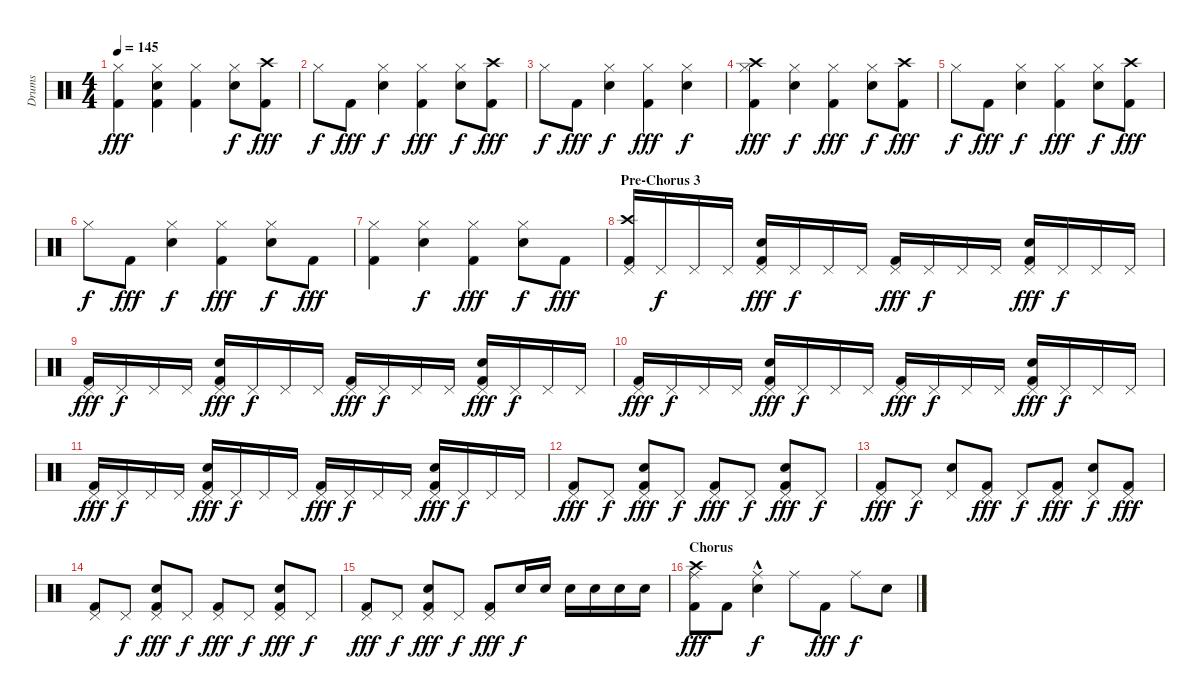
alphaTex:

\track ("Drums" "Drums") {instrument percussion}
\staff {score}
\articulation defaults
\ts (4 4)
\tempo 145
\clef neutral
\ks c
("Hi-Hat (closed)" "Kick (hit) 2").4{dy fff} ("Hi-Hat (closed)" "Electric Snare (hit)" "Kick (hit) 2").4 ("Hi-Hat (closed)" "Kick (hit) 2").4 ("Hi-Hat (closed)" "Electric Snare (hit)").8{dy f} ("Crash high (hit)" "Kick (hit) 2").8{dy fff} |
"Hi-Hat (closed)".8{dy f} "Kick (hit) 2".8{dy fff} ("Hi-Hat (closed)" "Electric Snare (hit)").4{dy f} ("Hi-Hat (closed)" "Kick (hit) 2").4{dy fff} ("Hi-Hat (closed)" "Electric Snare (hit)").8{dy f} ("Crash high (hit)" "Kick (hit) 2").8{dy fff} |
"Hi-Hat (closed)".8{dy f} "Kick (hit) 2".8{dy fff} ("Hi-Hat (closed)" "Electric Snare (hit)").4{dy f} ("Hi-Hat (closed)" "Kick (hit) 2").4{dy fff} ("Hi-Hat (closed)" "Electric Snare (hit)").4{dy f} |
("Crash high (hit)" "Hi-Hat (closed)" "Kick (hit) 2").4{dy fff} ("Hi-Hat (closed)" "Electric Snare (hit)").4{dy f} ("Hi-Hat (closed)" "Kick (hit) 2").4{dy fff} ("Hi-Hat (closed)" "Electric Snare (hit)").8{dy f} ("Crash high (hit)" "Kick (hit) 2").8{dy fff} |
"Hi-Hat (closed)".8{dy f} "Kick (hit) 2".8{dy fff} ("Hi-Hat (closed)" "Electric Snare (hit)").4{dy f} ("Hi-Hat (closed)" "Kick (hit) 2").4{dy fff} ("Hi-Hat (closed)" "Electric Snare (hit)").8{dy f} ("Crash high (hit)" "Kick (hit) 2").8{dy fff} |
"Hi-Hat (closed)".8{dy f} "Kick (hit) 2".8{dy fff} ("Hi-Hat (closed)" "Electric Snare (hit)").4{dy f} ("Hi-Hat (closed)" "Kick (hit) 2").4{dy fff} ("Hi-Hat (closed)" "Electric Snare (hit)").8{dy f} "Kick (hit) 2".8{dy fff} |
("Hi-Hat (closed)" "Kick (hit) 2").4 ("Hi-Hat (closed)" "Electric Snare (hit)").4{dy f} ("Hi-Hat (closed)" "Kick (hit) 2").4{dy fff} ("Hi-Hat (closed)" "Electric Snare (hit)").8{dy f} "Kick (hit) 2".8{dy fff} |
\section ("" "Pre-Chorus 3")
("Crash high (hit)" "Pedal Hi-Hat (hit)" "Kick (hit) 2").16 "Pedal Hi-Hat (hit)".16{dy f} "Pedal Hi-Hat (hit)".16 "Pedal Hi-Hat (hit)".16 ("Pedal Hi-Hat (hit)" "Electric Snare (hit)" "Kick (hit) 2").16{dy fff} "Pedal Hi-Hat (hit)".16{dy f} "Pedal Hi-Hat (hit)".16 "Pedal Hi-Hat (hit)".16 ("Pedal Hi-Hat (hit)" "Kick (hit) 2").16{dy fff} "Pedal Hi-Hat (hit)".16{dy f} "Pedal Hi-Hat (hit)".16 "Pedal Hi-Hat (hit)".16 ("Pedal Hi-Hat (hit)" "Electric Snare (hit)" "Kick (hit) 2").16{dy fff} "Pedal Hi-Hat (hit)".16{dy f} "Pedal Hi-Hat (hit)".16 "Pedal Hi-Hat (hit)".16 |
("Pedal Hi-Hat (hit)" "Kick (hit) 2").16{dy fff} "Pedal Hi-Hat (hit)".16{dy f} "Pedal Hi-Hat (hit)".16 "Pedal Hi-Hat (hit)".16 ("Pedal Hi-Hat (hit)" "Electric Snare (hit)" "Kick (hit) 2").16{dy fff} "Pedal Hi-Hat (hit)".16{dy f} "Pedal Hi-Hat (hit)".16 "Pedal Hi-Hat (hit)".16 ("Pedal Hi-Hat (hit)" "Kick (hit) 2").16{dy fff} "Pedal Hi-Hat (hit)".16{dy f} "Pedal Hi-Hat (hit)".16 "Pedal Hi-Hat (hit)".16 ("Pedal Hi-Hat (hit)" "Electric Snare (hit)" "Kick (hit) 2").16{dy fff} "Pedal Hi-Hat (hit)".16{dy f} "Pedal Hi-Hat (hit)".16 "Pedal Hi-Hat (hit)".16 |
("Pedal Hi-Hat (hit)" "Kick (hit) 2").16{dy fff} "Pedal Hi-Hat (hit)".16{dy f} "Pedal Hi-Hat (hit)".16 "Pedal Hi-Hat (hit)".16 ("Pedal Hi-Hat (hit)" "Electric Snare (hit)" "Kick (hit) 2").16{dy fff} "Pedal Hi-Hat (hit)".16{dy f} "Pedal Hi-Hat (hit)".16 "Pedal Hi-Hat (hit)".16 ("Pedal Hi-Hat (hit)" "Kick (hit) 2").16{dy fff} "Pedal Hi-Hat (hit)".16{dy f} "Pedal Hi-Hat (hit)".16 "Pedal Hi-Hat (hit)".16 ("Pedal Hi-Hat (hit)" "Electric Snare (hit)" "Kick (hit) 2").16{dy fff} "Pedal Hi-Hat (hit)".16{dy f} "Pedal Hi-Hat (hit)".16 "Pedal Hi-Hat (hit)".16 |
("Pedal Hi-Hat (hit)" "Kick (hit) 2").16{dy fff} "Pedal Hi-Hat (hit)".16{dy f} "Pedal Hi-Hat (hit)".16 "Pedal Hi-Hat (hit)".16 ("Pedal Hi-Hat (hit)" "Electric Snare (hit)" "Kick (hit) 2").16{dy fff} "Pedal Hi-Hat (hit)".16{dy f} "Pedal Hi-Hat (hit)".16 "Pedal Hi-Hat (hit)".16 ("Pedal Hi-Hat (hit)" "Kick (hit) 2").16{dy fff} "Pedal Hi-Hat (hit)".16{dy f} "Pedal Hi-Hat (hit)".16 "Pedal Hi-Hat (hit)".16 ("Pedal Hi-Hat (hit)" "Electric Snare (hit)" "Kick (hit) 2").16{dy fff} "Pedal Hi-Hat (hit)".16{dy f} "Pedal Hi-Hat (hit)".16 "Pedal Hi-Hat (hit)".16 |
("Pedal Hi-Hat (hit)" "Kick (hit) 2").8{dy fff} "Pedal Hi-Hat (hit)".8{dy f} ("Pedal Hi-Hat (hit)" "Electric Snare (hit)" "Kick (hit) 2").8{dy fff} "Pedal Hi-Hat (hit)".8{dy f} ("Pedal Hi-Hat (hit)" "Kick (hit) 2").8{dy fff} "Pedal Hi-Hat (hit)".8{dy f} ("Pedal Hi-Hat (hit)" "Electric Snare (hit)" "Kick (hit) 2").8{dy fff} "Pedal Hi-Hat (hit)".8{dy f} |
("Pedal Hi-Hat (hit)" "Kick (hit) 2").8{dy fff} "Pedal Hi-Hat (hit)".8{dy f} ("Pedal Hi-Hat (hit)" "Electric Snare (hit)").8 ("Pedal Hi-Hat (hit)" "Kick (hit) 2").8{dy fff} "Pedal Hi-Hat (hit)".8{dy f} ("Pedal Hi-Hat (hit)" "Kick (hit) 2").8{dy fff} ("Pedal Hi-Hat (hit)" "Electric Snare (hit)").8{dy f} ("Pedal Hi-Hat (hit)" "Kick (hit) 2").8{dy fff} |
("Pedal Hi-Hat (hit)" "Kick (hit) 2").8 "Pedal Hi-Hat (hit)".8{dy f} ("Pedal Hi-Hat (hit)" "Electric Snare (hit)" "Kick (hit) 2").8{dy fff} "Pedal Hi-Hat (hit)".8{dy f} ("Pedal Hi-Hat (hit)" "Kick (hit) 2").8{dy fff} "Pedal Hi-Hat (hit)".8{dy f} ("Pedal Hi-Hat (hit)" "Electric Snare (hit)" "Kick (hit) 2").8{dy fff} "Pedal Hi-Hat (hit)".8{dy f} |
("Pedal Hi-Hat (hit)" "Kick (hit) 2").8{dy fff} "Pedal Hi-Hat (hit)".8{dy f} ("Pedal Hi-Hat (hit)" "Electric Snare (hit)" "Kick (hit) 2").8{dy fff} "Pedal Hi-Hat (hit)".8{dy f} ("Pedal Hi-Hat (hit)" "Kick (hit) 2").8{dy fff} "Electric Snare (hit)".16{dy f} "Electric Snare (hit)".16 "Electric Snare (hit)".16 "Electric Snare (hit)".16 "Electric Snare (hit)".16 "Electric Snare (hit)".16 |
\section ("" "Chorus")
("Crash high (hit)" "Ride (middle)" "Kick (hit) 2").8{dy fff} "Kick (hit) 2".8 ("Ride (middle)" "Electric Snare (hit)"{hac}).4{dy f} "Ride (middle)".8 "Kick (hit) 2".8{dy fff} "Ride (middle)".8{dy f} "Electric Snare (hit)".8
